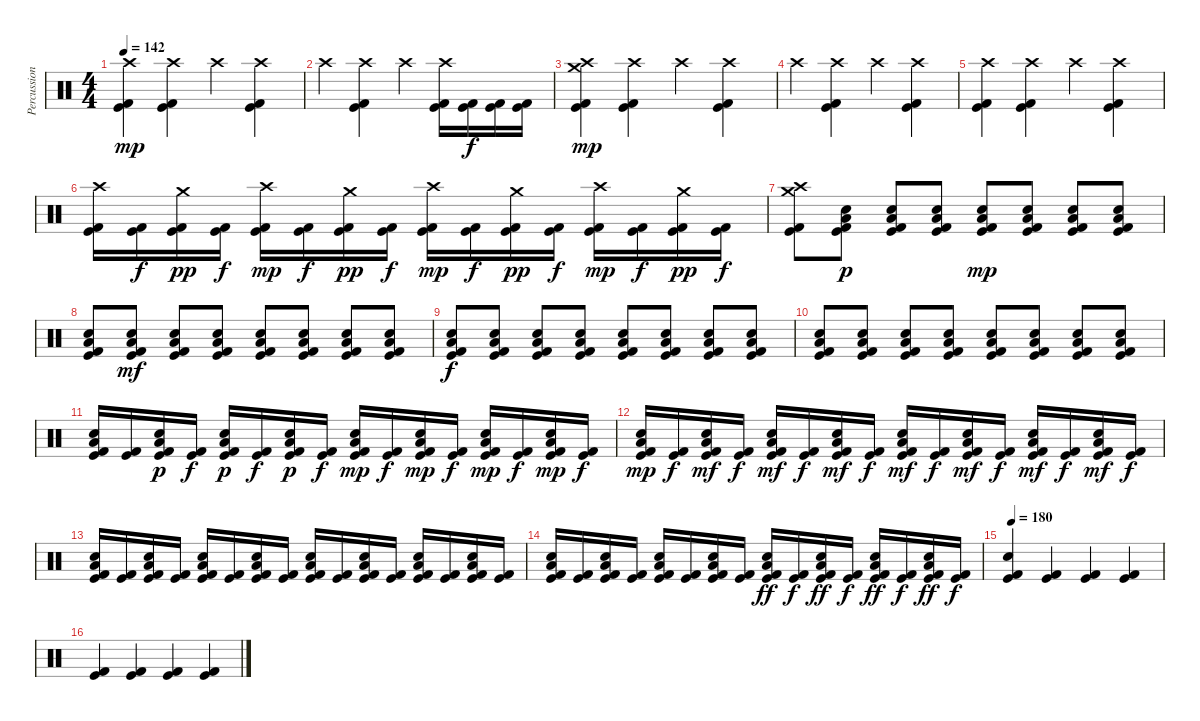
\track ("Percussion" "Percussion") {instrument percussion}
\staff {score}
\articulation defaults
\ts (4 4)
\tempo 142
\clef neutral
\ks c
("Crash high (hit)" "Kick (hit)" "Kick (hit) 2").4{dy mp} ("Crash high (hit)" "Kick (hit)" "Kick (hit) 2").4 "Crash high (hit)".4 ("Crash high (hit)" "Kick (hit)" "Kick (hit) 2").4 |
"Crash high (hit)".4 ("Crash high (hit)" "Kick (hit)" "Kick (hit) 2").4 "Crash high (hit)".4 ("Crash high (hit)" "Kick (hit)" "Kick (hit) 2").16 ("Kick (hit)" "Kick (hit) 2").16{dy f} ("Kick (hit)" "Kick (hit) 2").16 ("Kick (hit)" "Kick (hit) 2").16 |
("Crash medium (hit)" "Crash high (hit)" "Kick (hit)" "Kick (hit) 2").4{dy mp} ("Crash high (hit)" "Kick (hit)" "Kick (hit) 2").4 "Crash high (hit)".4 ("Crash high (hit)" "Kick (hit)" "Kick (hit) 2").4 |
"Crash high (hit)".4 ("Crash high (hit)" "Kick (hit)" "Kick (hit) 2").4 "Crash high (hit)".4 ("Crash high (hit)" "Kick (hit)" "Kick (hit) 2").4 |
("Crash high (hit)" "Kick (hit)" "Kick (hit) 2").4 ("Crash high (hit)" "Kick (hit)" "Kick (hit) 2").4 "Crash high (hit)".4 ("Crash high (hit)" "Kick (hit)" "Kick (hit) 2").4 |
("Crash high (hit)" "Kick (hit)" "Kick (hit) 2").16 ("Kick (hit)" "Kick (hit) 2").16{dy f} ("Crash medium (hit)" "Kick (hit)" "Kick (hit) 2").16{dy pp} ("Kick (hit)" "Kick (hit) 2").16{dy f} ("Crash high (hit)" "Kick (hit)" "Kick (hit) 2").16{dy mp} ("Kick (hit)" "Kick (hit) 2").16{dy f} ("Crash medium (hit)" "Kick (hit)" "Kick (hit) 2").16{dy pp} ("Kick (hit)" "Kick (hit) 2").16{dy f} ("Crash high (hit)" "Kick (hit)" "Kick (hit) 2").16{dy mp} ("Kick (hit)" "Kick (hit) 2").16{dy f} ("Crash medium (hit)" "Kick (hit)" "Kick (hit) 2").16{dy pp} ("Kick (hit)" "Kick (hit) 2").16{dy f} ("Crash high (hit)" "Kick (hit)" "Kick (hit) 2").16{dy mp} ("Kick (hit)" "Kick (hit) 2").16{dy f} ("Crash medium (hit)" "Kick (hit)" "Kick (hit) 2").16{dy pp} ("Kick (hit)" "Kick (hit) 2").16{dy f} |
("Crash medium (hit)" "Crash high (hit)" "Kick (hit)" "Kick (hit) 2").8 ("Low Floor Tom (hit)" "Electric Snare (hit)" "Kick (hit)" "Kick (hit) 2").8{dy p} ("Low Floor Tom (hit)" "Electric Snare (hit)" "Kick (hit)" "Kick (hit) 2").8 ("Low Floor Tom (hit)" "Electric Snare (hit)" "Kick (hit)" "Kick (hit) 2").8 ("Low Floor Tom (hit)" "Electric Snare (hit)" "Kick (hit)" "Kick (hit) 2").8{dy mp} ("Low Floor Tom (hit)" "Electric Snare (hit)" "Kick (hit)" "Kick (hit) 2").8 ("Low Floor Tom (hit)" "Electric Snare (hit)" "Kick (hit)" "Kick (hit) 2").8 ("Low Floor Tom (hit)" "Electric Snare (hit)" "Kick (hit)" "Kick (hit) 2").8 |
("Low Floor Tom (hit)" "Electric Snare (hit)" "Kick (hit)" "Kick (hit) 2").8 ("Low Floor Tom (hit)" "Electric Snare (hit)" "Kick (hit)" "Kick (hit) 2").8{dy mf} ("Low Floor Tom (hit)" "Electric Snare (hit)" "Kick (hit)" "Kick (hit) 2").8 ("Low Floor Tom (hit)" "Electric Snare (hit)" "Kick (hit)" "Kick (hit) 2").8 ("Low Floor Tom (hit)" "Electric Snare (hit)" "Kick (hit)" "Kick (hit) 2").8 ("Low Floor Tom (hit)" "Electric Snare (hit)" "Kick (hit)" "Kick (hit) 2").8 ("Low Floor Tom (hit)" "Electric Snare (hit)" "Kick (hit)" "Kick (hit) 2").8 ("Low Floor Tom (hit)" "Electric Snare (hit)" "Kick (hit)" "Kick (hit) 2").8 |
("Low Floor Tom (hit)" "Electric Snare (hit)" "Kick (hit)" "Kick (hit) 2").8{dy f} ("Low Floor Tom (hit)" "Electric Snare (hit)" "Kick (hit)" "Kick (hit) 2").8 ("Low Floor Tom (hit)" "Electric Snare (hit)" "Kick (hit)" "Kick (hit) 2").8 ("Low Floor Tom (hit)" "Electric Snare (hit)" "Kick (hit)" "Kick (hit) 2").8 ("Low Floor Tom (hit)" "Electric Snare (hit)" "Kick (hit)" "Kick (hit) 2").8 ("Low Floor Tom (hit)" "Electric Snare (hit)" "Kick (hit)" "Kick (hit) 2").8 ("Low Floor Tom (hit)" "Electric Snare (hit)" "Kick (hit)" "Kick (hit) 2").8 ("Low Floor Tom (hit)" "Electric Snare (hit)" "Kick (hit)" "Kick (hit) 2").8 |
("Low Floor Tom (hit)" "Electric Snare (hit)" "Kick (hit)" "Kick (hit) 2").8 ("Low Floor Tom (hit)" "Electric Snare (hit)" "Kick (hit)" "Kick (hit) 2").8 ("Low Floor Tom (hit)" "Electric Snare (hit)" "Kick (hit)" "Kick (hit) 2").8 ("Low Floor Tom (hit)" "Electric Snare (hit)" "Kick (hit)" "Kick (hit) 2").8 ("Low Floor Tom (hit)" "Electric Snare (hit)" "Kick (hit)" "Kick (hit) 2").8 ("Low Floor Tom (hit)" "Electric Snare (hit)" "Kick (hit)" "Kick (hit) 2").8 ("Low Floor Tom (hit)" "Electric Snare (hit)" "Kick (hit)" "Kick (hit) 2").8 ("Low Floor Tom (hit)" "Electric Snare (hit)" "Kick (hit)" "Kick (hit) 2").8 |
("Low Floor Tom (hit)" "Electric Snare (hit)" "Kick (hit)" "Kick (hit) 2").16 ("Kick (hit)" "Kick (hit) 2").16 ("Low Floor Tom (hit)" "Electric Snare (hit)" "Kick (hit)" "Kick (hit) 2").16{dy p} ("Kick (hit)" "Kick (hit) 2").16{dy f} ("Low Floor Tom (hit)" "Electric Snare (hit)" "Kick (hit)" "Kick (hit) 2").16{dy p} ("Kick (hit)" "Kick (hit) 2").16{dy f} ("Low Floor Tom (hit)" "Electric Snare (hit)" "Kick (hit)" "Kick (hit) 2").16{dy p} ("Kick (hit)" "Kick (hit) 2").16{dy f} ("Low Floor Tom (hit)" "Electric Snare (hit)" "Kick (hit)" "Kick (hit) 2").16{dy mp} ("Kick (hit)" "Kick (hit) 2").16{dy f} ("Low Floor Tom (hit)" "Electric Snare (hit)" "Kick (hit)" "Kick (hit) 2").16{dy mp} ("Kick (hit)" "Kick (hit) 2").16{dy f} ("Low Floor Tom (hit)" "Electric Snare (hit)" "Kick (hit)" "Kick (hit) 2").16{dy mp} ("Kick (hit)" "Kick (hit) 2").16{dy f} ("Low Floor Tom (hit)" "Electric Snare (hit)" "Kick (hit)" "Kick (hit) 2").16{dy mp} ("Kick (hit)" "Kick (hit) 2").16{dy f} |
("Low Floor Tom (hit)" "Electric Snare (hit)" "Kick (hit)" "Kick (hit) 2").16{dy mp} ("Kick (hit)" "Kick (hit) 2").16{dy f} ("Low Floor Tom (hit)" "Electric Snare (hit)" "Kick (hit)" "Kick (hit) 2").16{dy mf} ("Kick (hit)" "Kick (hit) 2").16{dy f} ("Low Floor Tom (hit)" "Electric Snare (hit)" "Kick (hit)" "Kick (hit) 2").16{dy mf} ("Kick (hit)" "Kick (hit) 2").16{dy f} ("Low Floor Tom (hit)" "Electric Snare (hit)" "Kick (hit)" "Kick (hit) 2").16{dy mf} ("Kick (hit)" "Kick (hit) 2").16{dy f} ("Low Floor Tom (hit)" "Electric Snare (hit)" "Kick (hit)" "Kick (hit) 2").16{dy mf} ("Kick (hit)" "Kick (hit) 2").16{dy f} ("Low Floor Tom (hit)" "Electric Snare (hit)" "Kick (hit)" "Kick (hit) 2").16{dy mf} ("Kick (hit)" "Kick (hit) 2").16{dy f} ("Low Floor Tom (hit)" "Electric Snare (hit)" "Kick (hit)" "Kick (hit) 2").16{dy mf} ("Kick (hit)" "Kick (hit) 2").16{dy f} ("Low Floor Tom (hit)" "Electric Snare (hit)" "Kick (hit)" "Kick (hit) 2").16{dy mf} ("Kick (hit)" "Kick (hit) 2").16{dy f} |
("Low Floor Tom (hit)" "Electric Snare (hit)" "Kick (hit)" "Kick (hit) 2").16 ("Kick (hit)" "Kick (hit) 2").16 ("Low Floor Tom (hit)" "Electric Snare (hit)" "Kick (hit)" "Kick (hit) 2").16 ("Kick (hit)" "Kick (hit) 2").16 ("Low Floor Tom (hit)" "Electric Snare (hit)" "Kick (hit)" "Kick (hit) 2").16 ("Kick (hit)" "Kick (hit) 2").16 ("Low Floor Tom (hit)" "Electric Snare (hit)" "Kick (hit)" "Kick (hit) 2").16 ("Kick (hit)" "Kick (hit) 2").16 ("Low Floor Tom (hit)" "Electric Snare (hit)" "Kick (hit)" "Kick (hit) 2").16 ("Kick (hit)" "Kick (hit) 2").16 ("Low Floor Tom (hit)" "Electric Snare (hit)" "Kick (hit)" "Kick (hit) 2").16 ("Kick (hit)" "Kick (hit) 2").16 ("Low Floor Tom (hit)" "Electric Snare (hit)" "Kick (hit)" "Kick (hit) 2").16 ("Kick (hit)" "Kick (hit) 2").16 ("Low Floor Tom (hit)" "Electric Snare (hit)" "Kick (hit)" "Kick (hit) 2").16 ("Kick (hit)" "Kick (hit) 2").16 |
("Low Floor Tom (hit)" "Electric Snare (hit)" "Kick (hit)" "Kick (hit) 2").16 ("Kick (hit)" "Kick (hit) 2").16 ("Low Floor Tom (hit)" "Electric Snare (hit)" "Kick (hit)" "Kick (hit) 2").16 ("Kick (hit)" "Kick (hit) 2").16 ("Low Floor Tom (hit)" "Electric Snare (hit)" "Kick (hit)" "Kick (hit) 2").16 ("Kick (hit)" "Kick (hit) 2").16 ("Low Floor Tom (hit)" "Electric Snare (hit)" "Kick (hit)" "Kick (hit) 2").16 ("Kick (hit)" "Kick (hit) 2").16 ("Low Floor Tom (hit)" "Electric Snare (hit)" "Kick (hit)" "Kick (hit) 2").16{dy ff} ("Kick (hit)" "Kick (hit) 2").16{dy f} ("Low Floor Tom (hit)" "Electric Snare (hit)" "Kick (hit)" "Kick (hit) 2").16{dy ff} ("Kick (hit)" "Kick (hit) 2").16{dy f} ("Low Floor Tom (hit)" "Electric Snare (hit)" "Kick (hit)" "Kick (hit) 2").16{dy ff} ("Kick (hit)" "Kick (hit) 2").16{dy f} ("Low Floor Tom (hit)" "Electric Snare (hit)" "Kick (hit)" "Kick (hit) 2").16{dy ff} ("Kick (hit)" "Kick (hit) 2").16{dy f} |
\tempo 180
("Electric Snare (hit)" "Kick (hit)" "Kick (hit) 2").4 ("Kick (hit)" "Kick (hit) 2").4 ("Kick (hit)" "Kick (hit) 2").4 ("Kick (hit)" "Kick (hit) 2").4 |
("Kick (hit)" "Kick (hit) 2").4 ("Kick (hit)" "Kick (hit) 2").4 ("Kick (hit)" "Kick (hit) 2").4 ("Kick (hit)" "Kick (hit) 2").4
